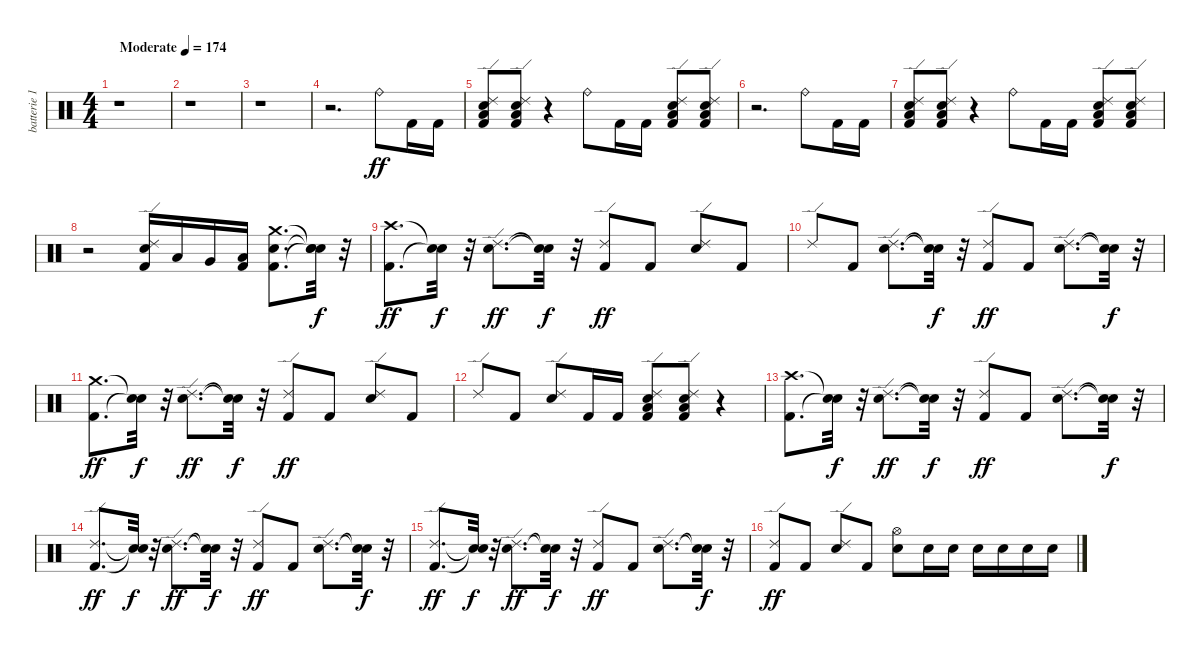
\track ("batterie 1" "batterie 1") {instrument percussion}
\staff {score}
\articulation defaults
\ts (4 4)
\tempo (174 "Moderate")
\clef neutral
\ks c
r.1{dy ff} |
r.1 |
r.1 |
r.2{d} "Ride (bell)".8 "Kick (hit) 2".16 "Kick (hit) 2".16 |
("Kick (hit) 2" "Electric Snare (hit)" "Low Floor Tom (hit)" "Ride (edge) 2").8 ("Kick (hit) 2" "Electric Snare (hit)" "Low Floor Tom (hit)" "Ride (edge) 2").8 r.4 "Ride (bell)".8 "Kick (hit) 2".16 "Kick (hit) 2".16 ("Kick (hit) 2" "Electric Snare (hit)" "Low Floor Tom (hit)" "Ride (edge) 2").8 ("Kick (hit) 2" "Electric Snare (hit)" "Low Floor Tom (hit)" "Ride (edge) 2").8 |
r.2{d} "Ride (bell)".8 "Kick (hit) 2".16 "Kick (hit) 2".16 |
("Kick (hit) 2" "Electric Snare (hit)" "Low Floor Tom (hit)" "Ride (edge) 2").8 ("Kick (hit) 2" "Electric Snare (hit)" "Low Floor Tom (hit)" "Ride (edge) 2").8 r.4 "Ride (bell)".8 "Kick (hit) 2".16 "Kick (hit) 2".16 ("Kick (hit) 2" "Electric Snare (hit)" "Low Floor Tom (hit)" "Ride (edge) 2").8 ("Kick (hit) 2" "Electric Snare (hit)" "Low Floor Tom (hit)" "Ride (edge) 2").8 |
r.2 ("Kick (hit) 2" "Electric Snare (hit)" "Ride (edge) 2").16 "Low Tom (hit)".16 "Very Low Tom (hit)".16 ("Kick (hit) 2" "Low Floor Tom (hit)").16 ("Kick (hit) 2" "Electric Snare (hit)" "Crash medium (hit)").8{d} ("Snare (hit)"{t} "Snare (hit)"{t} "Snare (hit)"{t}).32{dy f} r.32 |
("Kick (hit) 2" "Crash high (hit)").8{d dy ff} ("Snare (hit)"{t} "Snare (hit)"{t}).32{dy f} r.32 ("Electric Snare (hit)" "Ride (edge) 2").8{d dy ff} ("Snare (hit)"{t} "Snare (hit)"{t}).32{dy f} r.32 ("Kick (hit) 2" "Ride (edge) 2").8{dy ff} "Kick (hit) 2".8 ("Electric Snare (hit)" "Ride (edge) 2").8 "Kick (hit) 2".8 |
"Ride (edge) 2".8 "Kick (hit) 2".8 ("Electric Snare (hit)" "Ride (edge) 2").8{d} ("Snare (hit)"{t} "Snare (hit)"{t}).32{dy f} r.32 ("Kick (hit) 2" "Ride (edge) 2").8{dy ff} "Kick (hit) 2".8 ("Electric Snare (hit)" "Ride (edge) 2").8{d} ("Snare (hit)"{t} "Snare (hit)"{t}).32{dy f} r.32 |
("Kick (hit) 2" "Crash medium (hit)").8{d dy ff} ("Snare (hit)"{t} "Snare (hit)"{t}).32{dy f} r.32 ("Electric Snare (hit)" "Ride (edge) 2").8{d dy ff} ("Snare (hit)"{t} "Snare (hit)"{t}).32{dy f} r.32 ("Kick (hit) 2" "Ride (edge) 2").8{dy ff} "Kick (hit) 2".8 ("Electric Snare (hit)" "Ride (edge) 2").8 "Kick (hit) 2".8 |
"Ride (edge) 2".8 "Kick (hit) 2".8 ("Electric Snare (hit)" "Ride (edge) 2").8 "Kick (hit) 2".16 "Kick (hit) 2".16 ("Kick (hit) 2" "Electric Snare (hit)" "Low Floor Tom (hit)" "Ride (edge) 2").8 ("Kick (hit) 2" "Electric Snare (hit)" "Low Floor Tom (hit)" "Ride (edge) 2").8 r.4 |
("Kick (hit) 2" "Crash high (hit)").8{d} ("Snare (hit)"{t} "Snare (hit)"{t}).32{dy f} r.32 ("Electric Snare (hit)" "Ride (edge) 2").8{d dy ff} ("Snare (hit)"{t} "Snare (hit)"{t}).32{dy f} r.32 ("Kick (hit) 2" "Ride (edge) 2").8{dy ff} "Kick (hit) 2".8 ("Electric Snare (hit)" "Ride (edge) 2").8{d} ("Snare (hit)"{t} "Snare (hit)"{t}).32{dy f} r.32 |
("Kick (hit) 2" "Ride (edge) 2").8{d dy ff} ("Snare (hit)"{t} "Snare (hit)"{t}).32{dy f} r.32 ("Electric Snare (hit)" "Ride (edge) 2").8{d dy ff} ("Snare (hit)"{t} "Snare (hit)"{t}).32{dy f} r.32 ("Kick (hit) 2" "Ride (edge) 2").8{dy ff} "Kick (hit) 2".8 ("Electric Snare (hit)" "Ride (edge) 2").8{d} ("Snare (hit)"{t} "Snare (hit)"{t}).32{dy f} r.32 |
("Kick (hit) 2" "Ride (edge) 2").8{d dy ff} ("Snare (hit)"{t} "Snare (hit)"{t}).32{dy f} r.32 ("Electric Snare (hit)" "Ride (edge) 2").8{d dy ff} ("Snare (hit)"{t} "Snare (hit)"{t}).32{dy f} r.32 ("Kick (hit) 2" "Ride (edge) 2").8{dy ff} "Kick (hit) 2".8 ("Electric Snare (hit)" "Ride (edge) 2").8{d} ("Snare (hit)"{t} "Snare (hit)"{t}).32{dy f} r.32 |
("Kick (hit) 2" "Ride (edge) 2").8{dy ff} "Kick (hit) 2".8 ("Electric Snare (hit)" "Ride (edge) 2").8 "Kick (hit) 2".8 ("Electric Snare (hit)" "Hi-Hat (open)").8 "Electric Snare (hit)".16 "Electric Snare (hit)".16 "Electric Snare (hit)".16 "Electric Snare (hit)".16 "Electric Snare (hit)".16 "Electric Snare (hit)".16
